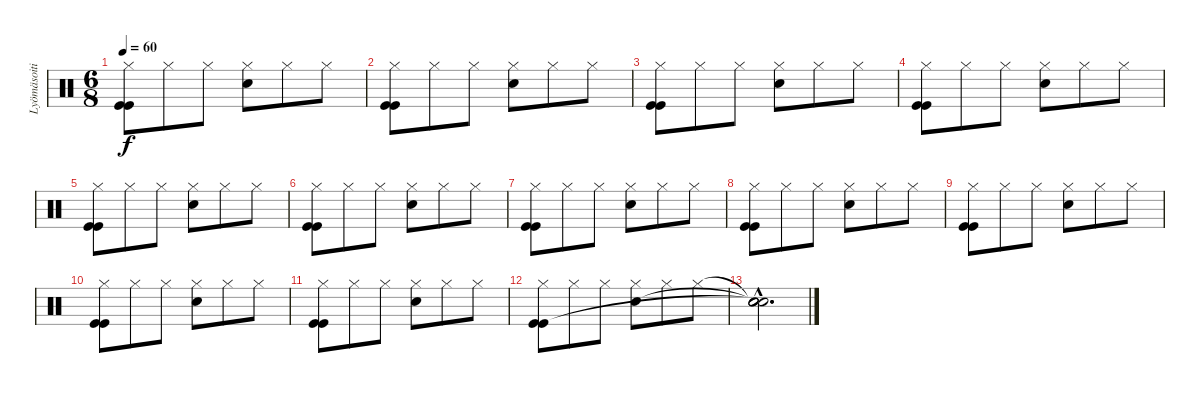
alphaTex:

\track ("Lyömäsoitin" "Lyömäsoiti") {instrument percussion}
\staff {score}
\articulation defaults
\ts (6 8)
\tempo 60
\clef neutral
\ks c
("Hi-Hat (closed)" "Kick (hit)" "Kick (hit)").8{dy f} "Hi-Hat (closed)".8 "Hi-Hat (closed)".8 ("Hi-Hat (closed)" "Snare (hit) 2").8 "Hi-Hat (closed)".8 "Hi-Hat (closed)".8 |
("Hi-Hat (closed)" "Kick (hit)" "Kick (hit)").8 "Hi-Hat (closed)".8 "Hi-Hat (closed)".8 ("Hi-Hat (closed)" "Snare (hit) 2").8 "Hi-Hat (closed)".8 "Hi-Hat (closed)".8 |
("Hi-Hat (closed)" "Kick (hit)" "Kick (hit)").8 "Hi-Hat (closed)".8 "Hi-Hat (closed)".8 ("Hi-Hat (closed)" "Snare (hit) 2").8 "Hi-Hat (closed)".8 "Hi-Hat (closed)".8 |
("Hi-Hat (closed)" "Kick (hit)" "Kick (hit)").8 "Hi-Hat (closed)".8 "Hi-Hat (closed)".8 ("Hi-Hat (closed)" "Snare (hit) 2").8 "Hi-Hat (closed)".8 "Hi-Hat (closed)".8 |
("Hi-Hat (closed)" "Kick (hit)" "Kick (hit)").8 "Hi-Hat (closed)".8 "Hi-Hat (closed)".8 ("Hi-Hat (closed)" "Snare (hit) 2").8 "Hi-Hat (closed)".8 "Hi-Hat (closed)".8 |
("Hi-Hat (closed)" "Kick (hit)" "Kick (hit)").8 "Hi-Hat (closed)".8 "Hi-Hat (closed)".8 ("Hi-Hat (closed)" "Snare (hit) 2").8 "Hi-Hat (closed)".8 "Hi-Hat (closed)".8 |
("Hi-Hat (closed)" "Kick (hit)" "Kick (hit)").8 "Hi-Hat (closed)".8 "Hi-Hat (closed)".8 ("Hi-Hat (closed)" "Snare (hit) 2").8 "Hi-Hat (closed)".8 "Hi-Hat (closed)".8 |
("Hi-Hat (closed)" "Kick (hit)" "Kick (hit)").8 "Hi-Hat (closed)".8 "Hi-Hat (closed)".8 ("Hi-Hat (closed)" "Snare (hit) 2").8 "Hi-Hat (closed)".8 "Hi-Hat (closed)".8 |
("Hi-Hat (closed)" "Kick (hit)" "Kick (hit)").8 "Hi-Hat (closed)".8 "Hi-Hat (closed)".8 ("Hi-Hat (closed)" "Snare (hit) 2").8 "Hi-Hat (closed)".8 "Hi-Hat (closed)".8 |
("Hi-Hat (closed)" "Kick (hit)" "Kick (hit)").8 "Hi-Hat (closed)".8 "Hi-Hat (closed)".8 ("Hi-Hat (closed)" "Snare (hit) 2").8 "Hi-Hat (closed)".8 "Hi-Hat (closed)".8 |
("Hi-Hat (closed)" "Kick (hit)" "Kick (hit)").8 "Hi-Hat (closed)".8 "Hi-Hat (closed)".8 ("Hi-Hat (closed)" "Snare (hit) 2").8 "Hi-Hat (closed)".8 "Hi-Hat (closed)".8 |
("Hi-Hat (closed)" "Kick (hit)" "Kick (hit)").8 "Hi-Hat (closed)".8 "Hi-Hat (closed)".8 ("Hi-Hat (closed)" "Snare (hit) 2").8 "Hi-Hat (closed)".8 "Hi-Hat (closed)".8 |
("Snare (hit)"{hac t} "Snare (hit)"{hac t} "Snare (hit)"{hac t} "Snare (hit)"{hac}).2{d}
